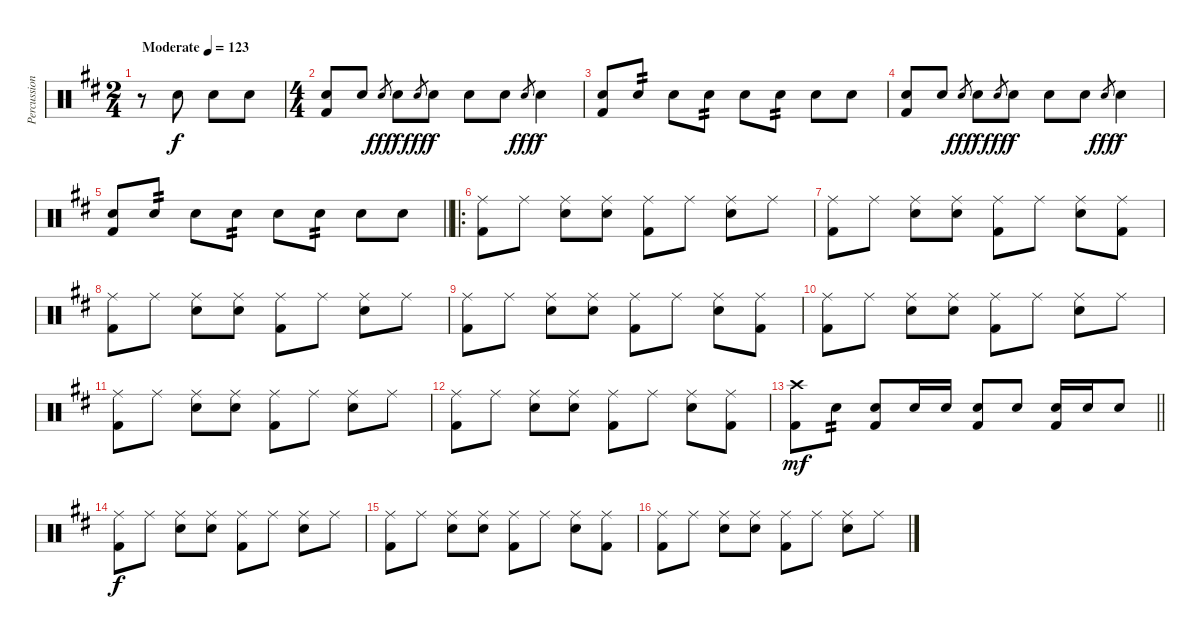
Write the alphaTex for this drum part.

\track ("Percussion" "Percussion") {instrument percussion}
\staff {score}
\articulation defaults
\ts (2 4)
\tempo (123 "Moderate")
\clef neutral
\ks d
r.8{dy f} "Snare (hit) 2".8 "Snare (hit) 2".8 "Snare (hit) 2".8 |
\ts (4 4)
("Snare (hit) 2" "Kick (hit) 2").8 "Snare (hit) 2".8 "Snare (hit) 2".8{gr dy fff} "Snare (hit) 2".8{dy f} "Snare (hit) 2".8{gr dy fff} "Snare (hit) 2".8{dy f} "Snare (hit) 2".8 "Snare (hit) 2".8 "Snare (hit) 2".8{gr dy fff} "Snare (hit) 2".4{dy f} |
("Snare (hit) 2" "Kick (hit) 2").8 "Snare (hit) 2".8{tp 2} "Snare (hit) 2".8 "Snare (hit) 2".8{tp 2} "Snare (hit) 2".8 "Snare (hit) 2".8{tp 2} "Snare (hit) 2".8 "Snare (hit) 2".8 |
("Snare (hit) 2" "Kick (hit) 2").8 "Snare (hit) 2".8 "Snare (hit) 2".8{gr dy fff} "Snare (hit) 2".8{dy f} "Snare (hit) 2".8{gr dy fff} "Snare (hit) 2".8{dy f} "Snare (hit) 2".8 "Snare (hit) 2".8 "Snare (hit) 2".8{gr dy fff} "Snare (hit) 2".4{dy f} |
\barLineRight lightlight
("Snare (hit) 2" "Kick (hit) 2").8 "Snare (hit) 2".8{tp 2} "Snare (hit) 2".8 "Snare (hit) 2".8{tp 2} "Snare (hit) 2".8 "Snare (hit) 2".8{tp 2} "Snare (hit) 2".8 "Snare (hit) 2".8 |
\ro
("Ride (middle)" "Kick (hit) 2").8 "Ride (middle)".8 ("Ride (middle)" "Snare (hit) 2").8 ("Ride (middle)" "Snare (hit) 2").8 ("Ride (middle)" "Kick (hit) 2").8 "Ride (middle)".8 ("Ride (middle)" "Snare (hit) 2").8 "Ride (middle)".8 |
("Ride (middle)" "Kick (hit) 2").8 "Ride (middle)".8 ("Ride (middle)" "Snare (hit) 2").8 ("Ride (middle)" "Snare (hit) 2").8 ("Ride (middle)" "Kick (hit) 2").8 "Ride (middle)".8 ("Ride (middle)" "Snare (hit) 2").8 ("Ride (middle)" "Kick (hit) 2").8 |
("Ride (middle)" "Kick (hit) 2").8 "Ride (middle)".8 ("Ride (middle)" "Snare (hit) 2").8 ("Ride (middle)" "Snare (hit) 2").8 ("Ride (middle)" "Kick (hit) 2").8 "Ride (middle)".8 ("Ride (middle)" "Snare (hit) 2").8 "Ride (middle)".8 |
("Ride (middle)" "Kick (hit) 2").8 "Ride (middle)".8 ("Ride (middle)" "Snare (hit) 2").8 ("Ride (middle)" "Snare (hit) 2").8 ("Ride (middle)" "Kick (hit) 2").8 "Ride (middle)".8 ("Ride (middle)" "Snare (hit) 2").8 ("Ride (middle)" "Kick (hit) 2").8 |
("Ride (middle)" "Kick (hit) 2").8 "Ride (middle)".8 ("Ride (middle)" "Snare (hit) 2").8 ("Ride (middle)" "Snare (hit) 2").8 ("Ride (middle)" "Kick (hit) 2").8 "Ride (middle)".8 ("Ride (middle)" "Snare (hit) 2").8 "Ride (middle)".8 |
("Ride (middle)" "Kick (hit) 2").8 "Ride (middle)".8 ("Ride (middle)" "Snare (hit) 2").8 ("Ride (middle)" "Snare (hit) 2").8 ("Ride (middle)" "Kick (hit) 2").8 "Ride (middle)".8 ("Ride (middle)" "Snare (hit) 2").8 "Ride (middle)".8 |
("Ride (middle)" "Kick (hit) 2").8 "Ride (middle)".8 ("Ride (middle)" "Snare (hit) 2").8 ("Ride (middle)" "Snare (hit) 2").8 ("Ride (middle)" "Kick (hit) 2").8 "Ride (middle)".8 ("Ride (middle)" "Snare (hit) 2").8 ("Ride (middle)" "Kick (hit) 2").8 |
\barLineRight lightlight
("Crash high (hit)" "Kick (hit) 2").8{dy mf} "Snare (hit) 2".8{tp 2} ("Snare (hit) 2" "Kick (hit) 2").8 "Snare (hit) 2".16 "Snare (hit) 2".16 ("Snare (hit) 2" "Kick (hit) 2").8 "Snare (hit) 2".8 ("Snare (hit) 2" "Kick (hit) 2").16 "Snare (hit) 2".16 "Snare (hit) 2".8 |
("Ride (middle)" "Kick (hit) 2").8{dy f} "Ride (middle)".8 ("Ride (middle)" "Snare (hit) 2").8 ("Ride (middle)" "Snare (hit) 2").8 ("Ride (middle)" "Kick (hit) 2").8 "Ride (middle)".8 ("Ride (middle)" "Snare (hit) 2").8 "Ride (middle)".8 |
("Ride (middle)" "Kick (hit) 2").8 "Ride (middle)".8 ("Ride (middle)" "Snare (hit) 2").8 ("Ride (middle)" "Snare (hit) 2").8 ("Ride (middle)" "Kick (hit) 2").8 "Ride (middle)".8 ("Ride (middle)" "Snare (hit) 2").8 ("Ride (middle)" "Kick (hit) 2").8 |
("Ride (middle)" "Kick (hit) 2").8 "Ride (middle)".8 ("Ride (middle)" "Snare (hit) 2").8 ("Ride (middle)" "Snare (hit) 2").8 ("Ride (middle)" "Kick (hit) 2").8 "Ride (middle)".8 ("Ride (middle)" "Snare (hit) 2").8 "Ride (middle)".8
